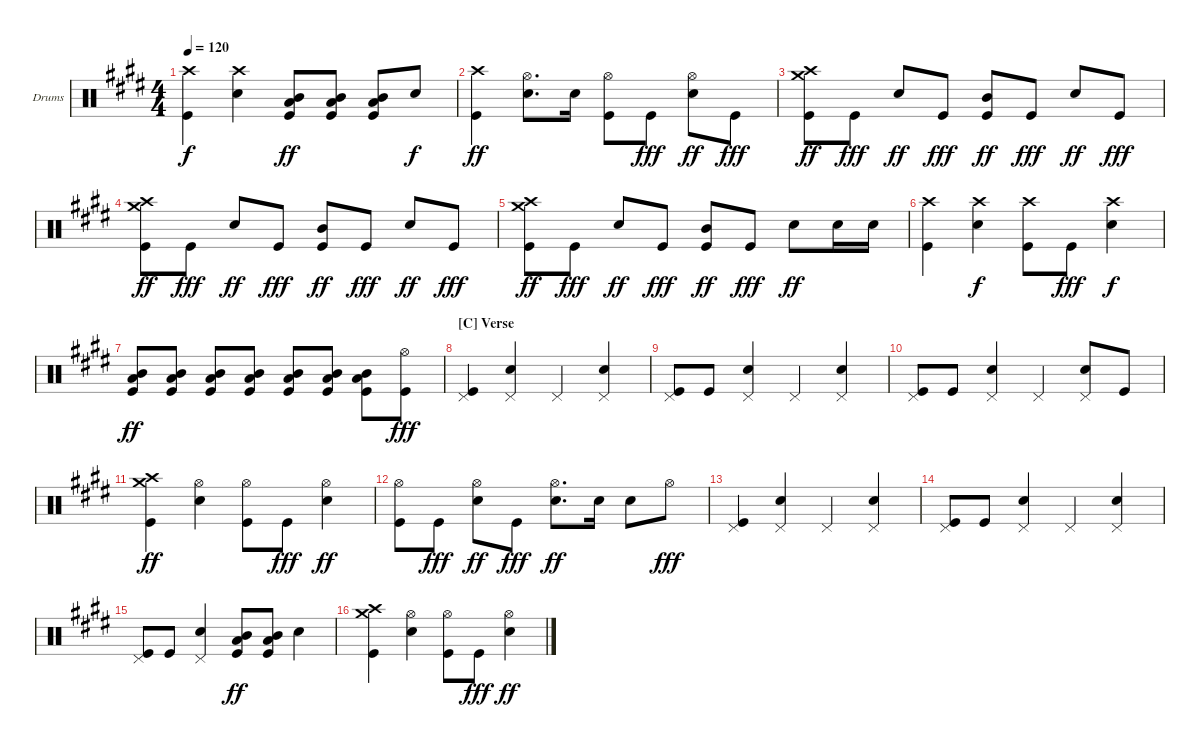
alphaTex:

\defaultSystemsLayout 4
\bracketExtendMode groupsimilarinstruments
\firstSystemTrackNameOrientation horizontal
\otherSystemsTrackNameOrientation horizontal
\track ("Drums" "Drums") {instrument percussion}
\staff {score}
\articulation defaults
\ts (4 4)
\tempo 120
\clef neutral
\scale
1.06557
\ks e
("Crash high (hit)" "Kick (hit)").4{dy f} ("Crash high (hit)" "Snare (hit) 2").4 ("Mid Tom (hit)" "Low Tom (hit)" "Kick (hit)").8{dy ff} ("Mid Tom (hit)" "Low Tom (hit)" "Kick (hit)").8 ("Mid Tom (hit)" "Low Tom (hit)" "Kick (hit)").8 "Snare (hit) 2".8{dy f} |
\scale
0.934426 ("Crash high (hit)" "Kick (hit)").4{dy ff} ("Hi-Hat (open)" "Snare (hit) 2").8{d} "Snare (hit) 2".16 ("Hi-Hat (open)" "Kick (hit)").8 "Kick (hit)".8{dy fff} ("Hi-Hat (open)" "Snare (hit) 2").8{dy ff} "Kick (hit)".8{dy fff} |
\scale
1.06557 ("Crash medium (hit)" "Crash high (hit)" "Kick (hit)").8{dy ff} "Kick (hit)".8{dy fff} "Snare (hit) 2".8{dy ff} "Kick (hit)".8{dy fff} ("Mid Tom (hit)" "Kick (hit)").8{dy ff} "Kick (hit)".8{dy fff} "Snare (hit) 2".8{dy ff} "Kick (hit)".8{dy fff} |
\scale
0.934426 ("Crash medium (hit)" "Crash high (hit)" "Kick (hit)").8{dy ff} "Kick (hit)".8{dy fff} "Snare (hit) 2".8{dy ff} "Kick (hit)".8{dy fff} ("Mid Tom (hit)" "Kick (hit)").8{dy ff} "Kick (hit)".8{dy fff} "Snare (hit) 2".8{dy ff} "Kick (hit)".8{dy fff} |
\scale
1.06557 ("Crash medium (hit)" "Crash high (hit)" "Kick (hit)").8{dy ff} "Kick (hit)".8{dy fff} "Snare (hit) 2".8{dy ff} "Kick (hit)".8{dy fff} ("Mid Tom (hit)" "Kick (hit)").8{dy ff} "Kick (hit)".8{dy fff} "Snare (hit) 2".8{dy ff} "Snare (hit) 2".16 "Snare (hit) 2".16 |
\scale
0.934426 ("Crash high (hit)" "Kick (hit)").4 ("Crash high (hit)" "Snare (hit) 2").4{dy f} ("Crash high (hit)" "Kick (hit)").8 "Kick (hit)".8{dy fff} ("Crash high (hit)" "Snare (hit) 2").4{dy f} |
\scale
1.06557 ("Mid Tom (hit)" "Low Tom (hit)" "Kick (hit)").8{dy ff} ("Mid Tom (hit)" "Low Tom (hit)" "Kick (hit)").8 ("Mid Tom (hit)" "Low Tom (hit)" "Kick (hit)").8 ("Mid Tom (hit)" "Low Tom (hit)" "Kick (hit)").8 ("Mid Tom (hit)" "Low Tom (hit)" "Kick (hit)").8 ("Mid Tom (hit)" "Low Tom (hit)" "Kick (hit)").8 ("Mid Tom (hit)" "Low Tom (hit)" "Kick (hit)").8 ("Hi-Hat (open)" "Kick (hit)").8{dy fff} |
\section ("C" "Verse")
\scale
0.934426 ("Pedal Hi-Hat (hit)" "Kick (hit)").4 ("Pedal Hi-Hat (hit)" "Snare (hit) 2").4 "Pedal Hi-Hat (hit)".4 ("Pedal Hi-Hat (hit)" "Snare (hit) 2").4 |
\scale
1.06557 ("Pedal Hi-Hat (hit)" "Kick (hit)").8 "Kick (hit)".8 ("Pedal Hi-Hat (hit)" "Snare (hit) 2").4 "Pedal Hi-Hat (hit)".4 ("Pedal Hi-Hat (hit)" "Snare (hit) 2").4 |
\scale
0.934426 ("Pedal Hi-Hat (hit)" "Kick (hit)").8 "Kick (hit)".8 ("Pedal Hi-Hat (hit)" "Snare (hit) 2").4 "Pedal Hi-Hat (hit)".4 ("Pedal Hi-Hat (hit)" "Snare (hit) 2").8 "Kick (hit)".8 |
\scale
1.06557 ("Crash high (hit)" "Crash medium (hit)" "Kick (hit)").4{dy ff} ("Hi-Hat (open)" "Snare (hit) 2").4 ("Hi-Hat (open)" "Kick (hit)").8 "Kick (hit)".8{dy fff} ("Hi-Hat (open)" "Snare (hit) 2").4{dy ff} |
\scale
0.934426 ("Hi-Hat (open)" "Kick (hit)").8 "Kick (hit)".8{dy fff} ("Hi-Hat (open)" "Snare (hit) 2").8{dy ff} "Kick (hit)".8{dy fff} ("Hi-Hat (open)" "Snare (hit) 2").8{d dy ff} "Snare (hit) 2".16 "Snare (hit) 2".8 "Hi-Hat (open)".8{dy fff} |
\scale
1.06557 ("Pedal Hi-Hat (hit)" "Kick (hit)").4 ("Pedal Hi-Hat (hit)" "Snare (hit) 2").4 "Pedal Hi-Hat (hit)".4 ("Pedal Hi-Hat (hit)" "Snare (hit) 2").4 |
\scale
0.934426 ("Pedal Hi-Hat (hit)" "Kick (hit)").8 "Kick (hit)".8 ("Pedal Hi-Hat (hit)" "Snare (hit) 2").4 "Pedal Hi-Hat (hit)".4 ("Pedal Hi-Hat (hit)" "Snare (hit) 2").4 |
\scale
1.06557 ("Pedal Hi-Hat (hit)" "Kick (hit)").8 "Kick (hit)".8 ("Pedal Hi-Hat (hit)" "Snare (hit) 2").4 ("Mid Tom (hit)" "Low Tom (hit)" "Kick (hit)").8{dy ff} ("Mid Tom (hit)" "Low Tom (hit)" "Kick (hit)").8 "Snare (hit) 2".4 |
\scale
0.934426 ("Crash high (hit)" "Crash medium (hit)" "Kick (hit)").4 ("Hi-Hat (open)" "Snare (hit) 2").4 ("Hi-Hat (open)" "Kick (hit)").8 "Kick (hit)".8{dy fff} ("Hi-Hat (open)" "Snare (hit) 2").4{dy ff}
